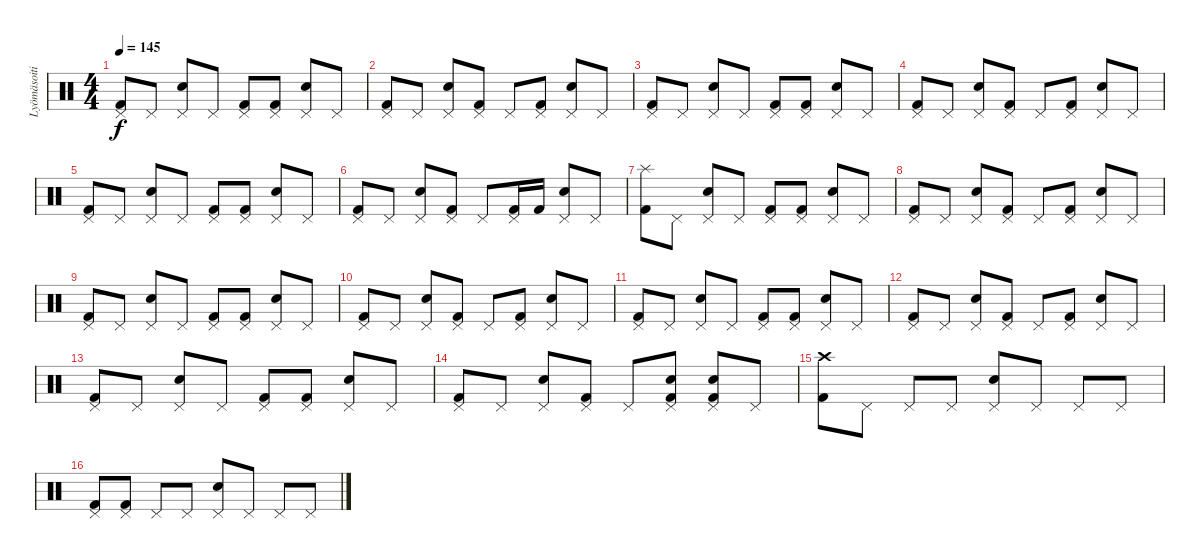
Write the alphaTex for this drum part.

\track ("Lyömäsoitin" "Lyömäsoiti") {instrument percussion}
\staff {score}
\articulation defaults
\ts (4 4)
\tempo 145
\clef neutral
\ks c
("Pedal Hi-Hat (hit)" "Kick (hit) 2").8{dy f} "Pedal Hi-Hat (hit)".8 ("Pedal Hi-Hat (hit)" "Electric Snare (hit)").8 "Pedal Hi-Hat (hit)".8 ("Pedal Hi-Hat (hit)" "Kick (hit) 2").8 ("Pedal Hi-Hat (hit)" "Kick (hit) 2").8 ("Pedal Hi-Hat (hit)" "Electric Snare (hit)").8 "Pedal Hi-Hat (hit)".8 |
("Pedal Hi-Hat (hit)" "Kick (hit) 2").8 "Pedal Hi-Hat (hit)".8 ("Pedal Hi-Hat (hit)" "Electric Snare (hit)").8 ("Pedal Hi-Hat (hit)" "Kick (hit) 2").8 "Pedal Hi-Hat (hit)".8 ("Pedal Hi-Hat (hit)" "Kick (hit) 2").8 ("Pedal Hi-Hat (hit)" "Electric Snare (hit)").8 "Pedal Hi-Hat (hit)".8 |
("Pedal Hi-Hat (hit)" "Kick (hit) 2").8 "Pedal Hi-Hat (hit)".8 ("Pedal Hi-Hat (hit)" "Electric Snare (hit)").8 "Pedal Hi-Hat (hit)".8 ("Pedal Hi-Hat (hit)" "Kick (hit) 2").8 ("Pedal Hi-Hat (hit)" "Kick (hit) 2").8 ("Pedal Hi-Hat (hit)" "Electric Snare (hit)").8 "Pedal Hi-Hat (hit)".8 |
("Pedal Hi-Hat (hit)" "Kick (hit) 2").8 "Pedal Hi-Hat (hit)".8 ("Pedal Hi-Hat (hit)" "Electric Snare (hit)").8 ("Pedal Hi-Hat (hit)" "Kick (hit) 2").8 "Pedal Hi-Hat (hit)".8 ("Pedal Hi-Hat (hit)" "Kick (hit) 2").8 ("Pedal Hi-Hat (hit)" "Electric Snare (hit)").8 "Pedal Hi-Hat (hit)".8 |
("Pedal Hi-Hat (hit)" "Kick (hit) 2").8 "Pedal Hi-Hat (hit)".8 ("Pedal Hi-Hat (hit)" "Electric Snare (hit)").8 "Pedal Hi-Hat (hit)".8 ("Pedal Hi-Hat (hit)" "Kick (hit) 2").8 ("Pedal Hi-Hat (hit)" "Kick (hit) 2").8 ("Pedal Hi-Hat (hit)" "Electric Snare (hit)").8 "Pedal Hi-Hat (hit)".8 |
("Pedal Hi-Hat (hit)" "Kick (hit) 2").8 "Pedal Hi-Hat (hit)".8 ("Pedal Hi-Hat (hit)" "Electric Snare (hit)").8 ("Pedal Hi-Hat (hit)" "Kick (hit) 2").8 "Pedal Hi-Hat (hit)".8 ("Pedal Hi-Hat (hit)" "Kick (hit) 2").16 "Kick (hit) 2".16 ("Pedal Hi-Hat (hit)" "Electric Snare (hit)").8 "Pedal Hi-Hat (hit)".8 |
("Splash (hit)" "Kick (hit) 2").8 "Pedal Hi-Hat (hit)".8 ("Pedal Hi-Hat (hit)" "Electric Snare (hit)").8 "Pedal Hi-Hat (hit)".8 ("Pedal Hi-Hat (hit)" "Kick (hit) 2").8 ("Pedal Hi-Hat (hit)" "Kick (hit) 2").8 ("Pedal Hi-Hat (hit)" "Electric Snare (hit)").8 "Pedal Hi-Hat (hit)".8 |
("Pedal Hi-Hat (hit)" "Kick (hit) 2").8 "Pedal Hi-Hat (hit)".8 ("Pedal Hi-Hat (hit)" "Electric Snare (hit)").8 ("Pedal Hi-Hat (hit)" "Kick (hit) 2").8 "Pedal Hi-Hat (hit)".8 ("Pedal Hi-Hat (hit)" "Kick (hit) 2").8 ("Pedal Hi-Hat (hit)" "Electric Snare (hit)").8 "Pedal Hi-Hat (hit)".8 |
("Pedal Hi-Hat (hit)" "Kick (hit) 2").8 "Pedal Hi-Hat (hit)".8 ("Pedal Hi-Hat (hit)" "Electric Snare (hit)").8 "Pedal Hi-Hat (hit)".8 ("Pedal Hi-Hat (hit)" "Kick (hit) 2").8 ("Pedal Hi-Hat (hit)" "Kick (hit) 2").8 ("Pedal Hi-Hat (hit)" "Electric Snare (hit)").8 "Pedal Hi-Hat (hit)".8 |
("Pedal Hi-Hat (hit)" "Kick (hit) 2").8 "Pedal Hi-Hat (hit)".8 ("Pedal Hi-Hat (hit)" "Electric Snare (hit)").8 ("Pedal Hi-Hat (hit)" "Kick (hit) 2").8 "Pedal Hi-Hat (hit)".8 ("Pedal Hi-Hat (hit)" "Kick (hit) 2").8 ("Pedal Hi-Hat (hit)" "Electric Snare (hit)").8 "Pedal Hi-Hat (hit)".8 |
("Pedal Hi-Hat (hit)" "Kick (hit) 2").8 "Pedal Hi-Hat (hit)".8 ("Pedal Hi-Hat (hit)" "Electric Snare (hit)").8 "Pedal Hi-Hat (hit)".8 ("Pedal Hi-Hat (hit)" "Kick (hit) 2").8 ("Pedal Hi-Hat (hit)" "Kick (hit) 2").8 ("Pedal Hi-Hat (hit)" "Electric Snare (hit)").8 "Pedal Hi-Hat (hit)".8 |
("Pedal Hi-Hat (hit)" "Kick (hit) 2").8 "Pedal Hi-Hat (hit)".8 ("Pedal Hi-Hat (hit)" "Electric Snare (hit)").8 ("Pedal Hi-Hat (hit)" "Kick (hit) 2").8 "Pedal Hi-Hat (hit)".8 ("Pedal Hi-Hat (hit)" "Kick (hit) 2").8 ("Pedal Hi-Hat (hit)" "Electric Snare (hit)").8 "Pedal Hi-Hat (hit)".8 |
("Pedal Hi-Hat (hit)" "Kick (hit) 2").8 "Pedal Hi-Hat (hit)".8 ("Pedal Hi-Hat (hit)" "Electric Snare (hit)").8 "Pedal Hi-Hat (hit)".8 ("Pedal Hi-Hat (hit)" "Kick (hit) 2").8 ("Pedal Hi-Hat (hit)" "Kick (hit) 2").8 ("Pedal Hi-Hat (hit)" "Electric Snare (hit)").8 "Pedal Hi-Hat (hit)".8 |
("Pedal Hi-Hat (hit)" "Kick (hit) 2").8 "Pedal Hi-Hat (hit)".8 ("Pedal Hi-Hat (hit)" "Electric Snare (hit)").8 ("Pedal Hi-Hat (hit)" "Kick (hit) 2").8 "Pedal Hi-Hat (hit)".8 ("Pedal Hi-Hat (hit)" "Electric Snare (hit)" "Kick (hit) 2").8 ("Pedal Hi-Hat (hit)" "Electric Snare (hit)" "Kick (hit) 2").8 "Pedal Hi-Hat (hit)".8 |
("Crash high (hit)" "Kick (hit) 2").8 "Pedal Hi-Hat (hit)".8 "Pedal Hi-Hat (hit)".8 "Pedal Hi-Hat (hit)".8 ("Pedal Hi-Hat (hit)" "Electric Snare (hit)").8 "Pedal Hi-Hat (hit)".8 "Pedal Hi-Hat (hit)".8 "Pedal Hi-Hat (hit)".8 |
("Pedal Hi-Hat (hit)" "Kick (hit) 2").8 ("Pedal Hi-Hat (hit)" "Kick (hit) 2").8 "Pedal Hi-Hat (hit)".8 "Pedal Hi-Hat (hit)".8 ("Pedal Hi-Hat (hit)" "Electric Snare (hit)").8 "Pedal Hi-Hat (hit)".8 "Pedal Hi-Hat (hit)".8 "Pedal Hi-Hat (hit)".8
